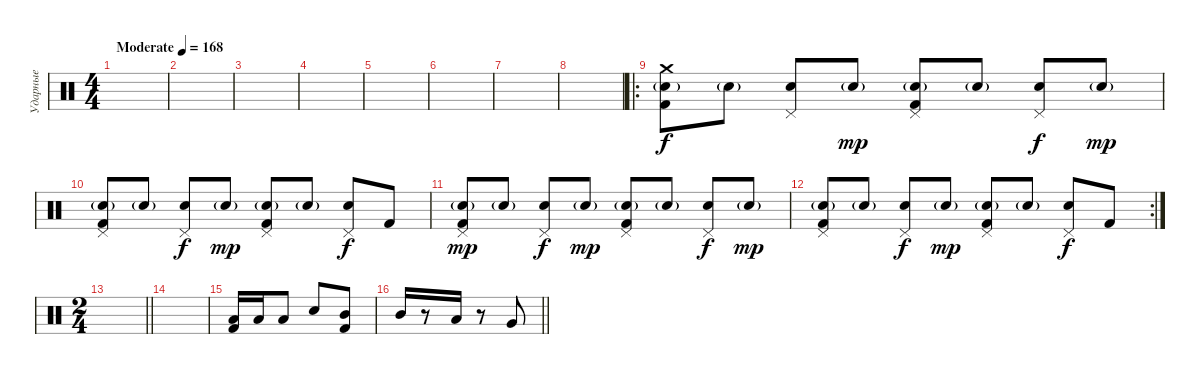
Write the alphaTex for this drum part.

\track ("Ударные" "Ударные") {instrument percussion}
\staff {score}
\articulation defaults
\ts (4 4)
\tempo (168 "Moderate")
\clef neutral
\ks c
|
|
|
|
|
|
|
|
\ro
("Crash medium (hit)" "Snare (hit) 2"{g} "Kick (hit) 2").8 "Snare (hit) 2"{g}.8 ("Pedal Hi-Hat (hit)" "Snare (hit) 2").8{dy f} "Snare (hit) 2"{g}.8{dy mp} ("Pedal Hi-Hat (hit)" "Snare (hit) 2"{g} "Kick (hit) 2").8 "Snare (hit) 2"{g}.8 ("Pedal Hi-Hat (hit)" "Snare (hit) 2").8{dy f} "Snare (hit) 2"{g}.8{dy mp} |
("Pedal Hi-Hat (hit)" "Snare (hit) 2"{g} "Kick (hit) 2").8 "Snare (hit) 2"{g}.8 ("Pedal Hi-Hat (hit)" "Snare (hit) 2").8{dy f} "Snare (hit) 2"{g}.8{dy mp} ("Pedal Hi-Hat (hit)" "Snare (hit) 2"{g} "Kick (hit) 2").8 "Snare (hit) 2"{g}.8 ("Pedal Hi-Hat (hit)" "Snare (hit) 2").8{dy f} "Kick (hit) 2".8 |
("Pedal Hi-Hat (hit)" "Snare (hit) 2"{g} "Kick (hit) 2").8{dy mp} "Snare (hit) 2"{g}.8 ("Pedal Hi-Hat (hit)" "Snare (hit) 2").8{dy f} "Snare (hit) 2"{g}.8{dy mp} ("Pedal Hi-Hat (hit)" "Snare (hit) 2"{g} "Kick (hit) 2").8 "Snare (hit) 2"{g}.8 ("Pedal Hi-Hat (hit)" "Snare (hit) 2").8{dy f} "Snare (hit) 2"{g}.8{dy mp} |
\rc 2
("Pedal Hi-Hat (hit)" "Snare (hit) 2"{g} "Kick (hit) 2").8 "Snare (hit) 2"{g}.8 ("Pedal Hi-Hat (hit)" "Snare (hit) 2").8{dy f} "Snare (hit) 2"{g}.8{dy mp} ("Pedal Hi-Hat (hit)" "Snare (hit) 2"{g} "Kick (hit) 2").8 "Snare (hit) 2"{g}.8 ("Pedal Hi-Hat (hit)" "Snare (hit) 2").8{dy f} "Kick (hit) 2".8 |
\ts (2 4)
\barLineRight lightlight
|
|
("Low Floor Tom (hit)" "Kick (hit) 2").16 "Low Floor Tom (hit)".16 "Low Tom (hit)".8 "Snare (hit) 2".8 ("Mid Tom (hit)" "Kick (hit) 2").8 |
\barLineRight lightlight "Mid Tom (hit)".16
r.8 "Low Tom (hit)".16 r.8 "Very Low Tom (hit)".8
